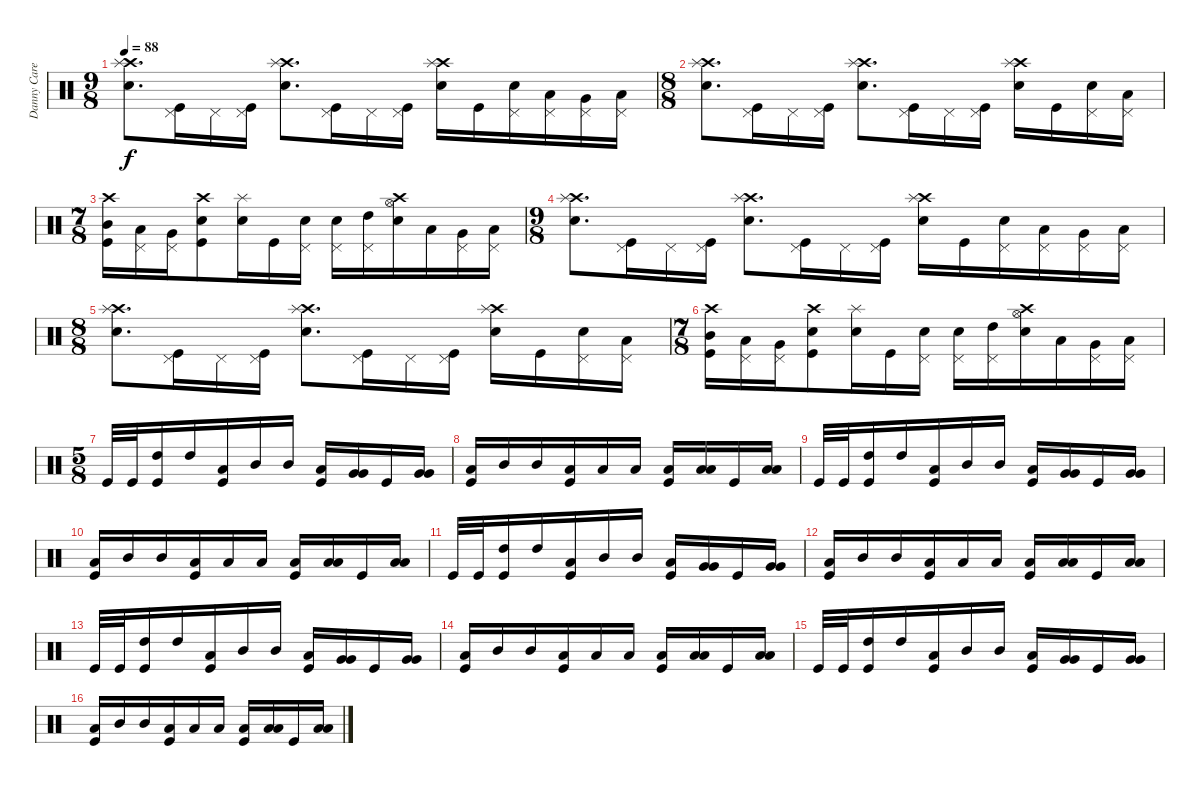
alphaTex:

\track ("Danny Carey" "Danny Care") {instrument percussion}
\staff {score}
\articulation defaults
\ts (9 8)
\tempo 88
\clef neutral
\ks c
("Crash high (hit)" "Splash (hit)" "Electric Snare (hit)").8{d dy f} ("Pedal Hi-Hat (hit)" "Kick (hit)").16 "Pedal Hi-Hat (hit)".16 ("Pedal Hi-Hat (hit)" "Kick (hit)").16 ("Crash high (hit)" "Splash (hit)" "Electric Snare (hit)").8{d} ("Pedal Hi-Hat (hit)" "Kick (hit)").16 "Pedal Hi-Hat (hit)".16 ("Pedal Hi-Hat (hit)" "Kick (hit)").16 ("Crash high (hit)" "Splash (hit)" "Electric Snare (hit)").16 "Kick (hit)".16 ("Pedal Hi-Hat (hit)" "Electric Snare (hit)").16 ("Pedal Hi-Hat (hit)" "Low Tom (hit)").16 ("Pedal Hi-Hat (hit)" "Very Low Tom (hit)").16 ("Pedal Hi-Hat (hit)" "Low Floor Tom (hit)").16 |
\ts (8 8)
("Crash high (hit)" "Splash (hit)" "Electric Snare (hit)").8{d} ("Pedal Hi-Hat (hit)" "Kick (hit)").16 "Pedal Hi-Hat (hit)".16 ("Pedal Hi-Hat (hit)" "Kick (hit)").16 ("Crash high (hit)" "Splash (hit)" "Electric Snare (hit)").8{d} ("Pedal Hi-Hat (hit)" "Kick (hit)").16 "Pedal Hi-Hat (hit)".16 ("Pedal Hi-Hat (hit)" "Kick (hit)").16 ("Crash high (hit)" "Splash (hit)" "Electric Snare (hit)").16 "Kick (hit)".16 ("Pedal Hi-Hat (hit)" "Electric Snare (hit)").16 ("Pedal Hi-Hat (hit)" "Low Tom (hit)").16 |
\ts (7 8)
("Crash high (hit)" "Mid Tom (hit)" "Kick (hit)").16 ("Pedal Hi-Hat (hit)" "Low Tom (hit)").16 ("Pedal Hi-Hat (hit)" "Very Low Tom (hit)").16 ("Crash high (hit)" "Electric Snare (hit)" "Kick (hit)").8 ("Splash (hit)" "Electric Snare (hit)").16 "Kick (hit)".16 ("Pedal Hi-Hat (hit)" "Electric Snare (hit)").16 ("Pedal Hi-Hat (hit)" "Electric Snare (hit)").16 ("Pedal Hi-Hat (hit)" "High Tom (hit)").16 ("Crash high (hit)" "Hi-Hat (open)" "Electric Snare (hit)").16 "Low Tom (hit)".16 ("Pedal Hi-Hat (hit)" "Very Low Tom (hit)").16 ("Pedal Hi-Hat (hit)" "Low Floor Tom (hit)").16 |
\ts (9 8)
("Crash high (hit)" "Splash (hit)" "Electric Snare (hit)").8{d} ("Pedal Hi-Hat (hit)" "Kick (hit)").16 "Pedal Hi-Hat (hit)".16 ("Pedal Hi-Hat (hit)" "Kick (hit)").16 ("Crash high (hit)" "Splash (hit)" "Electric Snare (hit)").8{d} ("Pedal Hi-Hat (hit)" "Kick (hit)").16 "Pedal Hi-Hat (hit)".16 ("Pedal Hi-Hat (hit)" "Kick (hit)").16 ("Crash high (hit)" "Splash (hit)" "Electric Snare (hit)").16 "Kick (hit)".16 ("Pedal Hi-Hat (hit)" "Electric Snare (hit)").16 ("Pedal Hi-Hat (hit)" "Low Tom (hit)").16 ("Pedal Hi-Hat (hit)" "Very Low Tom (hit)").16 ("Pedal Hi-Hat (hit)" "Low Floor Tom (hit)").16 |
\ts (8 8)
("Crash high (hit)" "Splash (hit)" "Electric Snare (hit)").8{d} ("Pedal Hi-Hat (hit)" "Kick (hit)").16 "Pedal Hi-Hat (hit)".16 ("Pedal Hi-Hat (hit)" "Kick (hit)").16 ("Crash high (hit)" "Splash (hit)" "Electric Snare (hit)").8{d} ("Pedal Hi-Hat (hit)" "Kick (hit)").16 "Pedal Hi-Hat (hit)".16 ("Pedal Hi-Hat (hit)" "Kick (hit)").16 ("Crash high (hit)" "Splash (hit)" "Electric Snare (hit)").16 "Kick (hit)".16 ("Pedal Hi-Hat (hit)" "Electric Snare (hit)").16 ("Pedal Hi-Hat (hit)" "Low Tom (hit)").16 |
\ts (7 8)
("Crash high (hit)" "Mid Tom (hit)" "Kick (hit)").16 ("Pedal Hi-Hat (hit)" "Low Tom (hit)").16 ("Pedal Hi-Hat (hit)" "Very Low Tom (hit)").16 ("Crash high (hit)" "Electric Snare (hit)" "Kick (hit)").8 ("Splash (hit)" "Electric Snare (hit)").16 "Kick (hit)".16 ("Pedal Hi-Hat (hit)" "Electric Snare (hit)").16 ("Pedal Hi-Hat (hit)" "Electric Snare (hit)").16 ("Pedal Hi-Hat (hit)" "High Tom (hit)").16 ("Crash high (hit)" "Hi-Hat (open)" "Electric Snare (hit)").16 "Low Tom (hit)".16 ("Pedal Hi-Hat (hit)" "Very Low Tom (hit)").16 ("Pedal Hi-Hat (hit)" "Low Floor Tom (hit)").16 |
\ts (5 8)
"Kick (hit)".32 "Kick (hit)".32 ("High Tom (hit)" "Kick (hit)").16 "High Tom (hit)".16 ("Low Floor Tom (hit)" "Kick (hit)").16 "Mid Tom (hit)".16 "Mid Tom (hit)".16 ("Low Floor Tom (hit)" "Kick (hit)").16 ("Very Low Tom (hit)" "Very Low Tom (hit)").16 "Kick (hit)".16 ("Very Low Tom (hit)" "Very Low Tom (hit)").16 |
("Low Floor Tom (hit)" "Kick (hit)").16 "Mid Tom (hit)".16 "Mid Tom (hit)".16 ("Low Floor Tom (hit)" "Kick (hit)").16 "Low Tom (hit)".16 "Low Tom (hit)".16 ("Low Floor Tom (hit)" "Kick (hit)").16 ("Low Floor Tom (hit)" "Low Floor Tom (hit)").16 "Kick (hit)".16 ("Low Floor Tom (hit)" "Low Floor Tom (hit)").16 |
"Kick (hit)".32 "Kick (hit)".32 ("High Tom (hit)" "Kick (hit)").16 "High Tom (hit)".16 ("Low Floor Tom (hit)" "Kick (hit)").16 "Mid Tom (hit)".16 "Mid Tom (hit)".16 ("Low Floor Tom (hit)" "Kick (hit)").16 ("Very Low Tom (hit)" "Very Low Tom (hit)").16 "Kick (hit)".16 ("Very Low Tom (hit)" "Very Low Tom (hit)").16 |
("Low Floor Tom (hit)" "Kick (hit)").16 "Mid Tom (hit)".16 "Mid Tom (hit)".16 ("Low Floor Tom (hit)" "Kick (hit)").16 "Low Tom (hit)".16 "Low Tom (hit)".16 ("Low Floor Tom (hit)" "Kick (hit)").16 ("Low Floor Tom (hit)" "Low Floor Tom (hit)").16 "Kick (hit)".16 ("Low Floor Tom (hit)" "Low Floor Tom (hit)").16 |
"Kick (hit)".32 "Kick (hit)".32 ("High Tom (hit)" "Kick (hit)").16 "High Tom (hit)".16 ("Low Floor Tom (hit)" "Kick (hit)").16 "Mid Tom (hit)".16 "Mid Tom (hit)".16 ("Low Floor Tom (hit)" "Kick (hit)").16 ("Very Low Tom (hit)" "Very Low Tom (hit)").16 "Kick (hit)".16 ("Very Low Tom (hit)" "Very Low Tom (hit)").16 |
("Low Floor Tom (hit)" "Kick (hit)").16 "Mid Tom (hit)".16 "Mid Tom (hit)".16 ("Low Floor Tom (hit)" "Kick (hit)").16 "Low Tom (hit)".16 "Low Tom (hit)".16 ("Low Floor Tom (hit)" "Kick (hit)").16 ("Low Floor Tom (hit)" "Low Floor Tom (hit)").16 "Kick (hit)".16 ("Low Floor Tom (hit)" "Low Floor Tom (hit)").16 |
"Kick (hit)".32 "Kick (hit)".32 ("High Tom (hit)" "Kick (hit)").16 "High Tom (hit)".16 ("Low Floor Tom (hit)" "Kick (hit)").16 "Mid Tom (hit)".16 "Mid Tom (hit)".16 ("Low Floor Tom (hit)" "Kick (hit)").16 ("Very Low Tom (hit)" "Very Low Tom (hit)").16 "Kick (hit)".16 ("Very Low Tom (hit)" "Very Low Tom (hit)").16 |
("Low Floor Tom (hit)" "Kick (hit)").16 "Mid Tom (hit)".16 "Mid Tom (hit)".16 ("Low Floor Tom (hit)" "Kick (hit)").16 "Low Tom (hit)".16 "Low Tom (hit)".16 ("Low Floor Tom (hit)" "Kick (hit)").16 ("Low Floor Tom (hit)" "Low Floor Tom (hit)").16 "Kick (hit)".16 ("Low Floor Tom (hit)" "Low Floor Tom (hit)").16 |
"Kick (hit)".32 "Kick (hit)".32 ("High Tom (hit)" "Kick (hit)").16 "High Tom (hit)".16 ("Low Floor Tom (hit)" "Kick (hit)").16 "Mid Tom (hit)".16 "Mid Tom (hit)".16 ("Low Floor Tom (hit)" "Kick (hit)").16 ("Very Low Tom (hit)" "Very Low Tom (hit)").16 "Kick (hit)".16 ("Very Low Tom (hit)" "Very Low Tom (hit)").16 |
("Low Floor Tom (hit)" "Kick (hit)").16 "Mid Tom (hit)".16 "Mid Tom (hit)".16 ("Low Floor Tom (hit)" "Kick (hit)").16 "Low Tom (hit)".16 "Low Tom (hit)".16 ("Low Floor Tom (hit)" "Kick (hit)").16 ("Low Floor Tom (hit)" "Low Floor Tom (hit)").16 "Kick (hit)".16 ("Low Floor Tom (hit)" "Low Floor Tom (hit)").16
